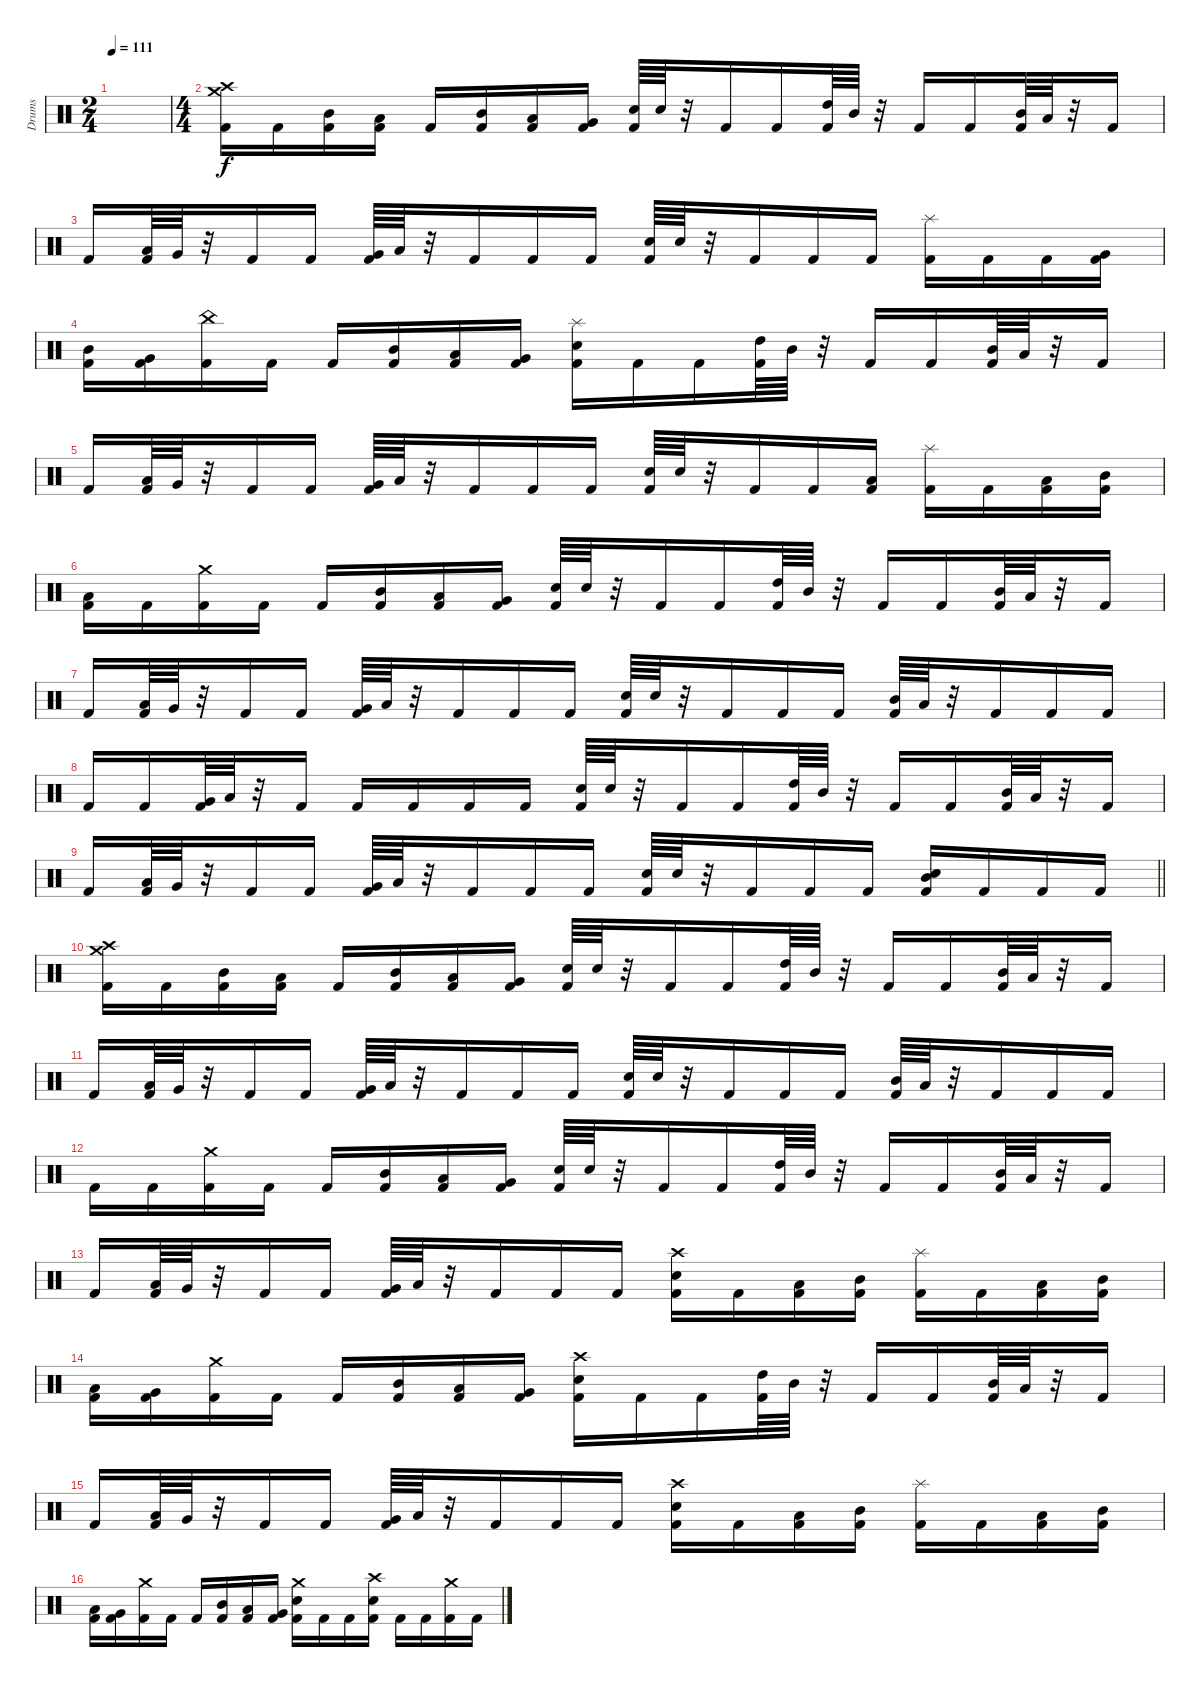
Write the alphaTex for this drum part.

\track ("Drums" "Drums") {instrument percussion}
\staff {score}
\articulation defaults
\ts (2 4)
\section ("" "")
\tempo 111
\clef neutral
\ks c
|
\ts (4 4)
("Crash medium (hit)" "Crash high (hit)" "Kick (hit) 2").16 "Kick (hit) 2".16 ("Mid Tom (hit)" "Kick (hit) 2").16 ("Low Tom (hit)" "Kick (hit) 2").16 "Kick (hit) 2".16 ("Mid Tom (hit)" "Kick (hit) 2").16 ("Low Tom (hit)" "Kick (hit) 2").16 ("Very Low Tom (hit)" "Kick (hit) 2").16 ("Electric Snare (hit)" "Kick (hit) 2").64 "Electric Snare (hit)".64 r.32 "Kick (hit) 2".16 "Kick (hit) 2".16 ("High Tom (hit)" "Kick (hit) 2").64 "Mid Tom (hit)".64 r.32 "Kick (hit) 2".16 "Kick (hit) 2".16 ("Mid Tom (hit)" "Kick (hit) 2").64 "Low Tom (hit)".64 r.32 "Kick (hit) 2".16 |
"Kick (hit) 2".16 ("Low Tom (hit)" "Kick (hit) 2").64 "Very Low Tom (hit)".64 r.32 "Kick (hit) 2".16 "Kick (hit) 2".16 ("Very Low Tom (hit)" "Kick (hit) 2").64 "Low Floor Tom (hit)".64 r.32 "Kick (hit) 2".16 "Kick (hit) 2".16 "Kick (hit) 2".16 ("Electric Snare (hit)" "Kick (hit) 2").64 "Electric Snare (hit)".64 r.32 "Kick (hit) 2".16 "Kick (hit) 2".16 "Kick (hit) 2".16 ("Splash (hit)" "Kick (hit) 2").16 "Kick (hit) 2".16 "Kick (hit) 2".16 ("Very Low Tom (hit)" "Kick (hit) 2").16 |
("Mid Tom (hit)" "Kick (hit) 2").16 ("Very Low Tom (hit)" "Kick (hit) 2").16 ("China (hit)" "Kick (hit) 2").16 "Kick (hit) 2".16 "Kick (hit) 2".16 ("Mid Tom (hit)" "Kick (hit) 2").16 ("Low Tom (hit)" "Kick (hit) 2").16 ("Very Low Tom (hit)" "Kick (hit) 2").16 ("Splash (hit)" "Electric Snare (hit)" "Kick (hit) 2").16 "Kick (hit) 2".16 "Kick (hit) 2".16 ("High Tom (hit)" "Kick (hit) 2").64 "Mid Tom (hit)".64 r.32 "Kick (hit) 2".16 "Kick (hit) 2".16 ("Mid Tom (hit)" "Kick (hit) 2").64 "Low Tom (hit)".64 r.32 "Kick (hit) 2".16 |
"Kick (hit) 2".16 ("Low Tom (hit)" "Kick (hit) 2").64 "Very Low Tom (hit)".64 r.32 "Kick (hit) 2".16 "Kick (hit) 2".16 ("Very Low Tom (hit)" "Kick (hit) 2").64 "Low Floor Tom (hit)".64 r.32 "Kick (hit) 2".16 "Kick (hit) 2".16 "Kick (hit) 2".16 ("Electric Snare (hit)" "Kick (hit) 2").64 "Electric Snare (hit)".64 r.32 "Kick (hit) 2".16 "Kick (hit) 2".16 ("Low Tom (hit)" "Kick (hit) 2").16 ("Splash (hit)" "Kick (hit) 2").16 "Kick (hit) 2".16 ("Low Tom (hit)" "Kick (hit) 2").16 ("Mid Tom (hit)" "Kick (hit) 2").16 |
("Low Tom (hit)" "Kick (hit) 2").16 "Kick (hit) 2".16 ("Crash medium (hit)" "Kick (hit) 2").16 "Kick (hit) 2".16 "Kick (hit) 2".16 ("Mid Tom (hit)" "Kick (hit) 2").16 ("Low Tom (hit)" "Kick (hit) 2").16 ("Very Low Tom (hit)" "Kick (hit) 2").16 ("Electric Snare (hit)" "Kick (hit) 2").64 "Electric Snare (hit)".64 r.32 "Kick (hit) 2".16 "Kick (hit) 2".16 ("High Tom (hit)" "Kick (hit) 2").64 "Mid Tom (hit)".64 r.32 "Kick (hit) 2".16 "Kick (hit) 2".16 ("Mid Tom (hit)" "Kick (hit) 2").64 "Low Tom (hit)".64 r.32 "Kick (hit) 2".16 |
"Kick (hit) 2".16 ("Low Tom (hit)" "Kick (hit) 2").64 "Very Low Tom (hit)".64 r.32 "Kick (hit) 2".16 "Kick (hit) 2".16 ("Very Low Tom (hit)" "Kick (hit) 2").64 "Low Floor Tom (hit)".64 r.32 "Kick (hit) 2".16 "Kick (hit) 2".16 "Kick (hit) 2".16 ("Electric Snare (hit)" "Kick (hit) 2").64 "Electric Snare (hit)".64 r.32 "Kick (hit) 2".16 "Kick (hit) 2".16 "Kick (hit) 2".16 ("Mid Tom (hit)" "Kick (hit) 2").64 "Low Tom (hit)".64 r.32 "Kick (hit) 2".16 "Kick (hit) 2".16 "Kick (hit) 2".16 |
"Kick (hit) 2".16 "Kick (hit) 2".16 ("Very Low Tom (hit)" "Kick (hit) 2").64 "Low Floor Tom (hit)".64 r.32 "Kick (hit) 2".16 "Kick (hit) 2".16 "Kick (hit) 2".16 "Kick (hit) 2".16 "Kick (hit) 2".16 ("Electric Snare (hit)" "Kick (hit) 2").64 "Electric Snare (hit)".64 r.32 "Kick (hit) 2".16 "Kick (hit) 2".16 ("High Tom (hit)" "Kick (hit) 2").64 "Mid Tom (hit)".64 r.32 "Kick (hit) 2".16 "Kick (hit) 2".16 ("Mid Tom (hit)" "Kick (hit) 2").64 "Low Tom (hit)".64 r.32 "Kick (hit) 2".16 |
\barLineRight lightlight "Kick (hit) 2".16
("Low Tom (hit)" "Kick (hit) 2").64 "Very Low Tom (hit)".64 r.32 "Kick (hit) 2".16 "Kick (hit) 2".16 ("Very Low Tom (hit)" "Kick (hit) 2").64 "Low Floor Tom (hit)".64 r.32 "Kick (hit) 2".16 "Kick (hit) 2".16 "Kick (hit) 2".16 ("Electric Snare (hit)" "Kick (hit) 2").64 "Electric Snare (hit)".64 r.32 "Kick (hit) 2".16 "Kick (hit) 2".16 "Kick (hit) 2".16 ("Mid Tom (hit)" "Electric Snare (hit)" "Kick (hit) 2").16 "Kick (hit) 2".16 "Kick (hit) 2".16 "Kick (hit) 2".16 |
\section ("" "")
("Crash medium (hit)" "Crash high (hit)" "Kick (hit) 2").16 "Kick (hit) 2".16 ("Mid Tom (hit)" "Kick (hit) 2").16 ("Low Tom (hit)" "Kick (hit) 2").16 "Kick (hit) 2".16 ("Mid Tom (hit)" "Kick (hit) 2").16 ("Low Tom (hit)" "Kick (hit) 2").16 ("Very Low Tom (hit)" "Kick (hit) 2").16 ("Electric Snare (hit)" "Kick (hit) 2").64 "Electric Snare (hit)".64 r.32 "Kick (hit) 2".16 "Kick (hit) 2".16 ("High Tom (hit)" "Kick (hit) 2").64 "Mid Tom (hit)".64 r.32 "Kick (hit) 2".16 "Kick (hit) 2".16 ("Mid Tom (hit)" "Kick (hit) 2").64 "Low Tom (hit)".64 r.32 "Kick (hit) 2".16 |
"Kick (hit) 2".16 ("Low Tom (hit)" "Kick (hit) 2").64 "Very Low Tom (hit)".64 r.32 "Kick (hit) 2".16 "Kick (hit) 2".16 ("Very Low Tom (hit)" "Kick (hit) 2").64 "Low Floor Tom (hit)".64 r.32 "Kick (hit) 2".16 "Kick (hit) 2".16 "Kick (hit) 2".16 ("Electric Snare (hit)" "Kick (hit) 2").64 "Electric Snare (hit)".64 r.32 "Kick (hit) 2".16 "Kick (hit) 2".16 "Kick (hit) 2".16 ("Mid Tom (hit)" "Kick (hit) 2").64 "Low Tom (hit)".64 r.32 "Kick (hit) 2".16 "Kick (hit) 2".16 "Kick (hit) 2".16 |
"Kick (hit) 2".16 "Kick (hit) 2".16 ("Crash medium (hit)" "Kick (hit) 2").16 "Kick (hit) 2".16 "Kick (hit) 2".16 ("Mid Tom (hit)" "Kick (hit) 2").16 ("Low Tom (hit)" "Kick (hit) 2").16 ("Very Low Tom (hit)" "Kick (hit) 2").16 ("Electric Snare (hit)" "Kick (hit) 2").64 "Electric Snare (hit)".64 r.32 "Kick (hit) 2".16 "Kick (hit) 2".16 ("High Tom (hit)" "Kick (hit) 2").64 "Mid Tom (hit)".64 r.32 "Kick (hit) 2".16 "Kick (hit) 2".16 ("Mid Tom (hit)" "Kick (hit) 2").64 "Low Tom (hit)".64 r.32 "Kick (hit) 2".16 |
"Kick (hit) 2".16 ("Low Tom (hit)" "Kick (hit) 2").64 "Very Low Tom (hit)".64 r.32 "Kick (hit) 2".16 "Kick (hit) 2".16 ("Very Low Tom (hit)" "Kick (hit) 2").64 "Low Floor Tom (hit)".64 r.32 "Kick (hit) 2".16 "Kick (hit) 2".16 "Kick (hit) 2".16 ("Crash high (hit)" "Electric Snare (hit)" "Kick (hit) 2").16 "Kick (hit) 2".16 ("Low Tom (hit)" "Kick (hit) 2").16 ("Mid Tom (hit)" "Kick (hit) 2").16 ("Splash (hit)" "Kick (hit) 2").16 "Kick (hit) 2".16 ("Low Tom (hit)" "Kick (hit) 2").16 ("Mid Tom (hit)" "Kick (hit) 2").16 |
("Low Tom (hit)" "Kick (hit) 2").16 ("Very Low Tom (hit)" "Kick (hit) 2").16 ("Crash medium (hit)" "Kick (hit) 2").16 "Kick (hit) 2".16 "Kick (hit) 2".16 ("Mid Tom (hit)" "Kick (hit) 2").16 ("Low Tom (hit)" "Kick (hit) 2").16 ("Very Low Tom (hit)" "Kick (hit) 2").16 ("Crash high (hit)" "Electric Snare (hit)" "Kick (hit) 2").16 "Kick (hit) 2".16 "Kick (hit) 2".16 ("High Tom (hit)" "Kick (hit) 2").64 "Mid Tom (hit)".64 r.32 "Kick (hit) 2".16 "Kick (hit) 2".16 ("Mid Tom (hit)" "Kick (hit) 2").64 "Low Tom (hit)".64 r.32 "Kick (hit) 2".16 |
"Kick (hit) 2".16 ("Low Tom (hit)" "Kick (hit) 2").64 "Very Low Tom (hit)".64 r.32 "Kick (hit) 2".16 "Kick (hit) 2".16 ("Very Low Tom (hit)" "Kick (hit) 2").64 "Low Floor Tom (hit)".64 r.32 "Kick (hit) 2".16 "Kick (hit) 2".16 "Kick (hit) 2".16 ("Crash high (hit)" "Electric Snare (hit)" "Kick (hit) 2").16 "Kick (hit) 2".16 ("Low Tom (hit)" "Kick (hit) 2").16 ("Mid Tom (hit)" "Kick (hit) 2").16 ("Splash (hit)" "Kick (hit) 2").16 "Kick (hit) 2".16 ("Low Tom (hit)" "Kick (hit) 2").16 ("Mid Tom (hit)" "Kick (hit) 2").16 |
("Low Tom (hit)" "Kick (hit) 2").16 ("Very Low Tom (hit)" "Kick (hit) 2").16 ("Crash medium (hit)" "Kick (hit) 2").16 "Kick (hit) 2".16 "Kick (hit) 2".16 ("Mid Tom (hit)" "Kick (hit) 2").16 ("Low Tom (hit)" "Kick (hit) 2").16 ("Very Low Tom (hit)" "Kick (hit) 2").16 ("Crash medium (hit)" "Electric Snare (hit)" "Kick (hit) 2").16 "Kick (hit) 2".16 "Kick (hit) 2".16 ("Crash high (hit)" "Electric Snare (hit)" "Kick (hit) 2").16 "Kick (hit) 2".16 "Kick (hit) 2".16 ("Crash medium (hit)" "Kick (hit) 2").16 "Kick (hit) 2".16
